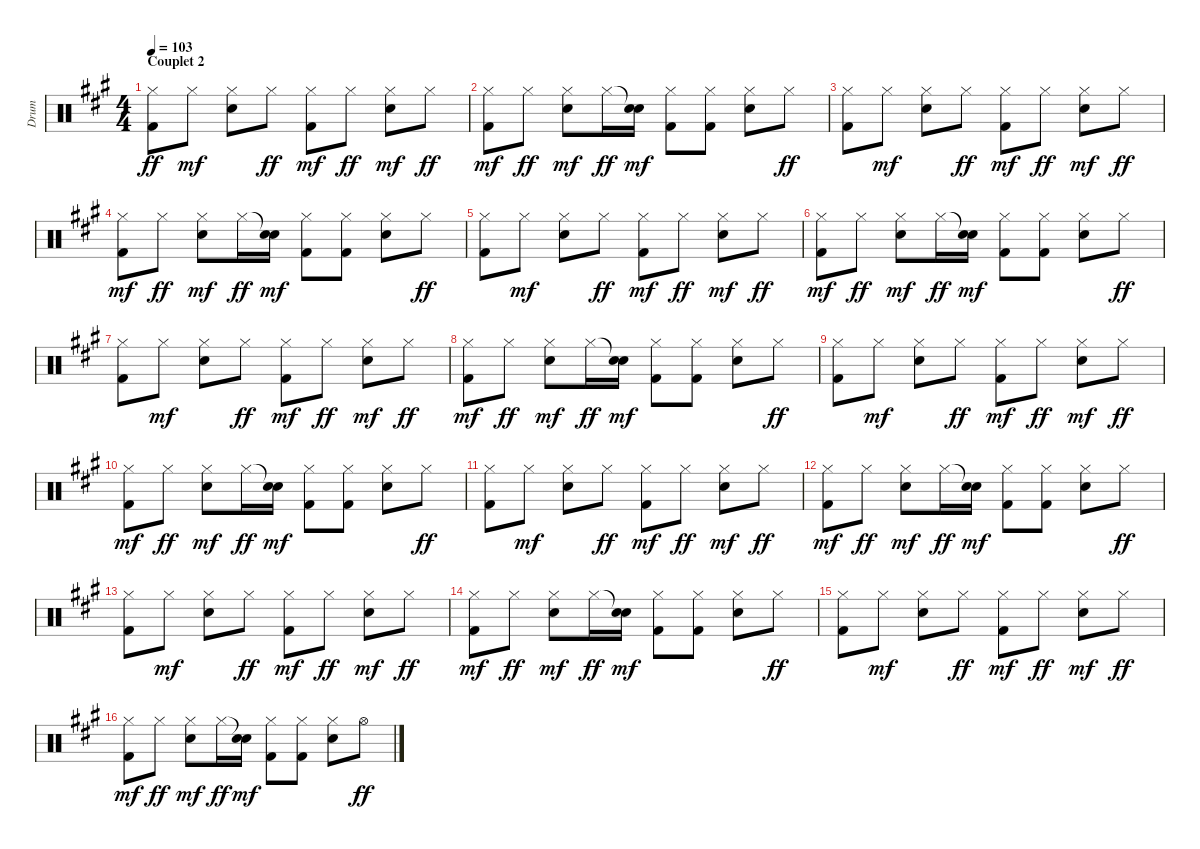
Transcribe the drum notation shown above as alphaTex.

\track ("Drum" "Drum") {instrument percussion}
\staff {score}
\articulation defaults
\ts (4 4)
\section ("" "Couplet 2")
\tempo 103
\clef neutral
\ks a
("Hi-Hat (closed)" "Kick (hit) 2").8{dy ff} "Hi-Hat (closed)".8{dy mf} ("Hi-Hat (closed)" "Electric Snare (hit)").8 "Hi-Hat (closed)".8{dy ff} ("Hi-Hat (closed)" "Kick (hit) 2").8{dy mf} "Hi-Hat (closed)".8{dy ff} ("Hi-Hat (closed)" "Electric Snare (hit)").8{dy mf} "Hi-Hat (closed)".8{dy ff} |
("Hi-Hat (closed)" "Kick (hit) 2").8{dy mf} "Hi-Hat (closed)".8{dy ff} ("Hi-Hat (closed)" "Electric Snare (hit)").8{dy mf} "Hi-Hat (closed)".16{dy ff} ("Snare (hit)"{t} "Electric Snare (hit)").16{dy mf} ("Hi-Hat (closed)" "Kick (hit) 2").8 ("Hi-Hat (closed)" "Kick (hit) 2").8 ("Hi-Hat (closed)" "Electric Snare (hit)").8 "Hi-Hat (closed)".8{dy ff} |
("Hi-Hat (closed)" "Kick (hit) 2").8 "Hi-Hat (closed)".8{dy mf} ("Hi-Hat (closed)" "Electric Snare (hit)").8 "Hi-Hat (closed)".8{dy ff} ("Hi-Hat (closed)" "Kick (hit) 2").8{dy mf} "Hi-Hat (closed)".8{dy ff} ("Hi-Hat (closed)" "Electric Snare (hit)").8{dy mf} "Hi-Hat (closed)".8{dy ff} |
("Hi-Hat (closed)" "Kick (hit) 2").8{dy mf} "Hi-Hat (closed)".8{dy ff} ("Hi-Hat (closed)" "Electric Snare (hit)").8{dy mf} "Hi-Hat (closed)".16{dy ff} ("Snare (hit)"{t} "Electric Snare (hit)").16{dy mf} ("Hi-Hat (closed)" "Kick (hit) 2").8 ("Hi-Hat (closed)" "Kick (hit) 2").8 ("Hi-Hat (closed)" "Electric Snare (hit)").8 "Hi-Hat (closed)".8{dy ff} |
("Hi-Hat (closed)" "Kick (hit) 2").8 "Hi-Hat (closed)".8{dy mf} ("Hi-Hat (closed)" "Electric Snare (hit)").8 "Hi-Hat (closed)".8{dy ff} ("Hi-Hat (closed)" "Kick (hit) 2").8{dy mf} "Hi-Hat (closed)".8{dy ff} ("Hi-Hat (closed)" "Electric Snare (hit)").8{dy mf} "Hi-Hat (closed)".8{dy ff} |
("Hi-Hat (closed)" "Kick (hit) 2").8{dy mf} "Hi-Hat (closed)".8{dy ff} ("Hi-Hat (closed)" "Electric Snare (hit)").8{dy mf} "Hi-Hat (closed)".16{dy ff} ("Snare (hit)"{t} "Electric Snare (hit)").16{dy mf} ("Hi-Hat (closed)" "Kick (hit) 2").8 ("Hi-Hat (closed)" "Kick (hit) 2").8 ("Hi-Hat (closed)" "Electric Snare (hit)").8 "Hi-Hat (closed)".8{dy ff} |
("Hi-Hat (closed)" "Kick (hit) 2").8 "Hi-Hat (closed)".8{dy mf} ("Hi-Hat (closed)" "Electric Snare (hit)").8 "Hi-Hat (closed)".8{dy ff} ("Hi-Hat (closed)" "Kick (hit) 2").8{dy mf} "Hi-Hat (closed)".8{dy ff} ("Hi-Hat (closed)" "Electric Snare (hit)").8{dy mf} "Hi-Hat (closed)".8{dy ff} |
("Hi-Hat (closed)" "Kick (hit) 2").8{dy mf} "Hi-Hat (closed)".8{dy ff} ("Hi-Hat (closed)" "Electric Snare (hit)").8{dy mf} "Hi-Hat (closed)".16{dy ff} ("Snare (hit)"{t} "Electric Snare (hit)").16{dy mf} ("Hi-Hat (closed)" "Kick (hit) 2").8 ("Hi-Hat (closed)" "Kick (hit) 2").8 ("Hi-Hat (closed)" "Electric Snare (hit)").8 "Hi-Hat (closed)".8{dy ff} |
("Hi-Hat (closed)" "Kick (hit) 2").8 "Hi-Hat (closed)".8{dy mf} ("Hi-Hat (closed)" "Electric Snare (hit)").8 "Hi-Hat (closed)".8{dy ff} ("Hi-Hat (closed)" "Kick (hit) 2").8{dy mf} "Hi-Hat (closed)".8{dy ff} ("Hi-Hat (closed)" "Electric Snare (hit)").8{dy mf} "Hi-Hat (closed)".8{dy ff} |
("Hi-Hat (closed)" "Kick (hit) 2").8{dy mf} "Hi-Hat (closed)".8{dy ff} ("Hi-Hat (closed)" "Electric Snare (hit)").8{dy mf} "Hi-Hat (closed)".16{dy ff} ("Snare (hit)"{t} "Electric Snare (hit)").16{dy mf} ("Hi-Hat (closed)" "Kick (hit) 2").8 ("Hi-Hat (closed)" "Kick (hit) 2").8 ("Hi-Hat (closed)" "Electric Snare (hit)").8 "Hi-Hat (closed)".8{dy ff} |
("Hi-Hat (closed)" "Kick (hit) 2").8 "Hi-Hat (closed)".8{dy mf} ("Hi-Hat (closed)" "Electric Snare (hit)").8 "Hi-Hat (closed)".8{dy ff} ("Hi-Hat (closed)" "Kick (hit) 2").8{dy mf} "Hi-Hat (closed)".8{dy ff} ("Hi-Hat (closed)" "Electric Snare (hit)").8{dy mf} "Hi-Hat (closed)".8{dy ff} |
("Hi-Hat (closed)" "Kick (hit) 2").8{dy mf} "Hi-Hat (closed)".8{dy ff} ("Hi-Hat (closed)" "Electric Snare (hit)").8{dy mf} "Hi-Hat (closed)".16{dy ff} ("Snare (hit)"{t} "Electric Snare (hit)").16{dy mf} ("Hi-Hat (closed)" "Kick (hit) 2").8 ("Hi-Hat (closed)" "Kick (hit) 2").8 ("Hi-Hat (closed)" "Electric Snare (hit)").8 "Hi-Hat (closed)".8{dy ff} |
("Hi-Hat (closed)" "Kick (hit) 2").8 "Hi-Hat (closed)".8{dy mf} ("Hi-Hat (closed)" "Electric Snare (hit)").8 "Hi-Hat (closed)".8{dy ff} ("Hi-Hat (closed)" "Kick (hit) 2").8{dy mf} "Hi-Hat (closed)".8{dy ff} ("Hi-Hat (closed)" "Electric Snare (hit)").8{dy mf} "Hi-Hat (closed)".8{dy ff} |
("Hi-Hat (closed)" "Kick (hit) 2").8{dy mf} "Hi-Hat (closed)".8{dy ff} ("Hi-Hat (closed)" "Electric Snare (hit)").8{dy mf} "Hi-Hat (closed)".16{dy ff} ("Snare (hit)"{t} "Electric Snare (hit)").16{dy mf} ("Hi-Hat (closed)" "Kick (hit) 2").8 ("Hi-Hat (closed)" "Kick (hit) 2").8 ("Hi-Hat (closed)" "Electric Snare (hit)").8 "Hi-Hat (closed)".8{dy ff} |
("Hi-Hat (closed)" "Kick (hit) 2").8 "Hi-Hat (closed)".8{dy mf} ("Hi-Hat (closed)" "Electric Snare (hit)").8 "Hi-Hat (closed)".8{dy ff} ("Hi-Hat (closed)" "Kick (hit) 2").8{dy mf} "Hi-Hat (closed)".8{dy ff} ("Hi-Hat (closed)" "Electric Snare (hit)").8{dy mf} "Hi-Hat (closed)".8{dy ff} |
("Hi-Hat (closed)" "Kick (hit) 2").8{dy mf} "Hi-Hat (closed)".8{dy ff} ("Hi-Hat (closed)" "Electric Snare (hit)").8{dy mf} "Hi-Hat (closed)".16{dy ff} ("Snare (hit)"{t} "Electric Snare (hit)").16{dy mf} ("Hi-Hat (closed)" "Kick (hit) 2").8 ("Hi-Hat (closed)" "Kick (hit) 2").8 ("Hi-Hat (closed)" "Electric Snare (hit)").8 "Hi-Hat (open)".8{dy ff}
